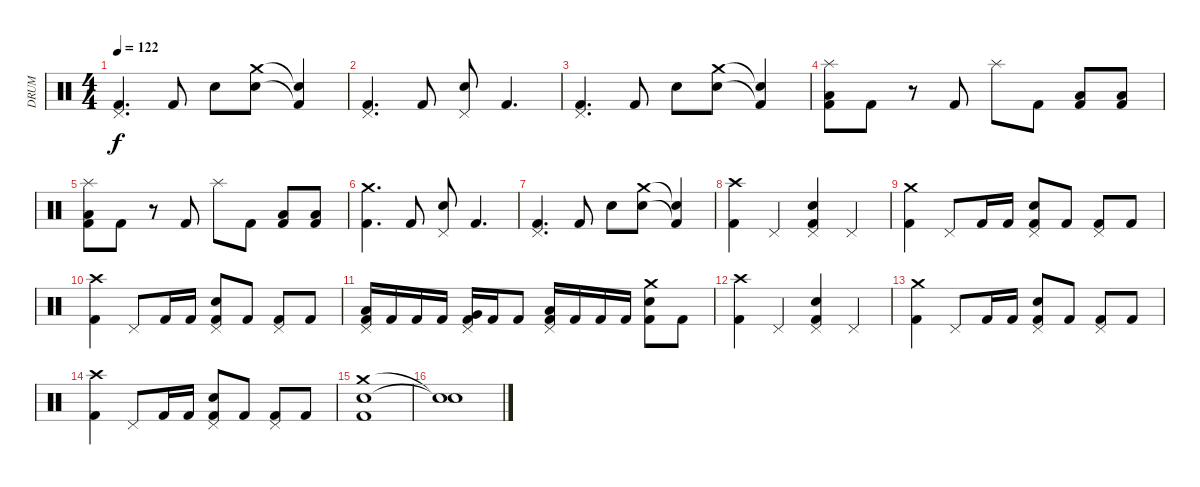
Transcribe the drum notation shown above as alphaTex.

\track ("DRUM" "DRUM") {instrument percussion}
\staff {score}
\articulation defaults
\ts (4 4)
\tempo 122
\clef neutral
\ks c
("Kick (hit) 2" "Pedal Hi-Hat (hit)").4{d dy f} "Kick (hit) 2".8 "Electric Snare (hit)".8 ("Electric Snare (hit)" "Crash medium (hit)").8 ("Kick (hit) 2"{t} "Snare (hit)"{t}).4 |
("Kick (hit) 2" "Pedal Hi-Hat (hit)").4{d} "Kick (hit) 2".8 ("Snare (hit) 2" "Pedal Hi-Hat (hit)").8 "Kick (hit) 2".4{d} |
("Kick (hit) 2" "Pedal Hi-Hat (hit)").4{d} "Kick (hit) 2".8 "Electric Snare (hit)".8 ("Electric Snare (hit)" "Crash medium (hit)").8 ("Kick (hit) 2"{t} "Snare (hit)"{t}).4 |
("Kick (hit) 2" "Low Floor Tom (hit)" "Splash (hit)").8 "Kick (hit) 2".8 r.8 "Kick (hit) 2".8 "Splash (hit)".8 "Kick (hit) 2".8 ("Kick (hit) 2" "Low Floor Tom (hit)").8 ("Kick (hit) 2" "Low Floor Tom (hit)").8 |
("Kick (hit) 2" "Low Floor Tom (hit)" "Splash (hit)").8 "Kick (hit) 2".8 r.8 "Kick (hit) 2".8 "Splash (hit)".8 "Kick (hit) 2".8 ("Kick (hit) 2" "Low Floor Tom (hit)").8 ("Kick (hit) 2" "Low Floor Tom (hit)").8 |
("Kick (hit) 2" "Crash medium (hit)").4{d} "Kick (hit) 2".8 ("Snare (hit) 2" "Pedal Hi-Hat (hit)").8 "Kick (hit) 2".4{d} |
("Kick (hit) 2" "Pedal Hi-Hat (hit)").4{d} "Kick (hit) 2".8 "Electric Snare (hit)".8 ("Electric Snare (hit)" "Crash medium (hit)").8 ("Kick (hit) 2"{t} "Snare (hit)"{t}).4 |
("Crash high (hit)" "Kick (hit) 2").4 "Pedal Hi-Hat (hit)".4 ("Pedal Hi-Hat (hit)" "Electric Snare (hit)" "Kick (hit) 2").4 "Pedal Hi-Hat (hit)".4 |
("Crash medium (hit)" "Kick (hit) 2").4 "Pedal Hi-Hat (hit)".8 "Kick (hit) 2".16 "Kick (hit) 2".16 ("Pedal Hi-Hat (hit)" "Electric Snare (hit)" "Kick (hit) 2").8 "Kick (hit) 2".8 ("Pedal Hi-Hat (hit)" "Kick (hit) 2").8 "Kick (hit) 2".8 |
("Crash high (hit)" "Kick (hit) 2").4 "Pedal Hi-Hat (hit)".8 "Kick (hit) 2".16 "Kick (hit) 2".16 ("Pedal Hi-Hat (hit)" "Electric Snare (hit)" "Kick (hit) 2").8 "Kick (hit) 2".8 ("Pedal Hi-Hat (hit)" "Kick (hit) 2").8 "Kick (hit) 2".8 |
("Low Tom (hit)" "Kick (hit) 2" "Pedal Hi-Hat (hit)").16 "Kick (hit) 2".16 "Kick (hit) 2".16 "Kick (hit) 2".16 ("Very Low Tom (hit)" "Kick (hit) 2" "Pedal Hi-Hat (hit)").16 "Kick (hit) 2".16 "Kick (hit) 2".8 ("Low Floor Tom (hit)" "Kick (hit) 2" "Pedal Hi-Hat (hit)").16 "Kick (hit) 2".16 "Kick (hit) 2".16 "Kick (hit) 2".16 ("Crash medium (hit)" "Electric Snare (hit)" "Kick (hit) 2").8 "Kick (hit) 2".8 |
("Crash high (hit)" "Kick (hit) 2").4 "Pedal Hi-Hat (hit)".4 ("Pedal Hi-Hat (hit)" "Electric Snare (hit)" "Kick (hit) 2").4 "Pedal Hi-Hat (hit)".4 |
("Crash medium (hit)" "Kick (hit) 2").4 "Pedal Hi-Hat (hit)".8 "Kick (hit) 2".16 "Kick (hit) 2".16 ("Pedal Hi-Hat (hit)" "Electric Snare (hit)" "Kick (hit) 2").8 "Kick (hit) 2".8 ("Pedal Hi-Hat (hit)" "Kick (hit) 2").8 "Kick (hit) 2".8 |
("Crash high (hit)" "Kick (hit) 2").4 "Pedal Hi-Hat (hit)".8 "Kick (hit) 2".16 "Kick (hit) 2".16 ("Pedal Hi-Hat (hit)" "Electric Snare (hit)" "Kick (hit) 2").8 "Kick (hit) 2".8 ("Pedal Hi-Hat (hit)" "Kick (hit) 2").8 "Kick (hit) 2".8 |
("Crash medium (hit)" "Electric Snare (hit)" "Kick (hit) 2").1 |
("Snare (hit)"{t} "Snare (hit)"{t}).1
